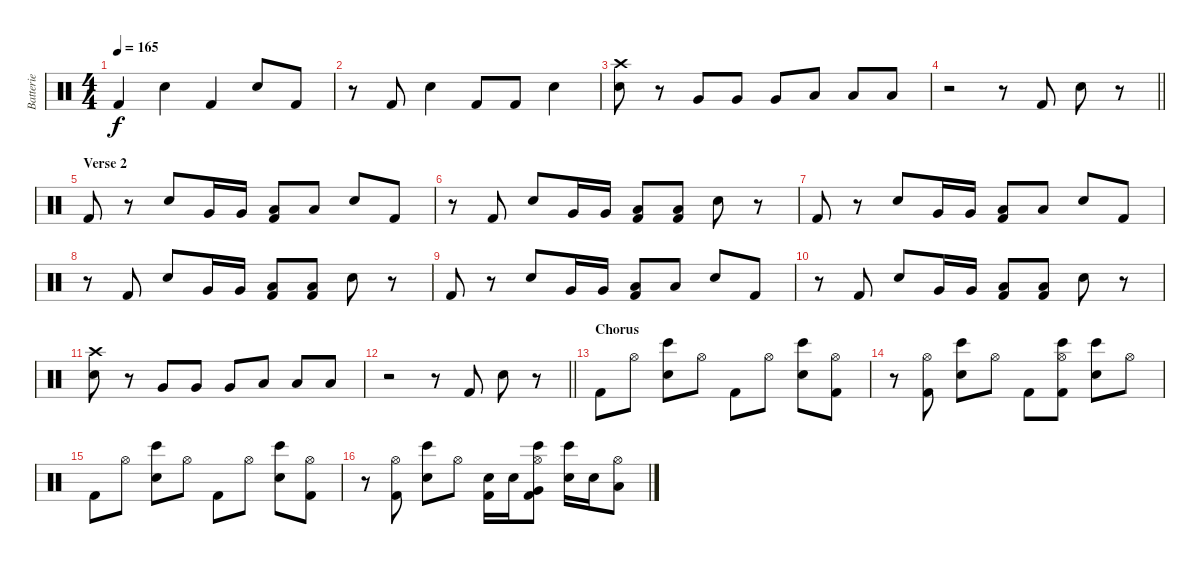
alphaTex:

\track ("Batterie" "Batterie") {instrument percussion}
\staff {score}
\articulation defaults
\ts (4 4)
\tempo 165
\clef neutral
\ks c "Kick (hit) 2".4{dy f} "Electric Snare (hit)".4 "Kick (hit) 2".4 "Electric Snare (hit)".8 "Kick (hit) 2".8
|
r.8 "Kick (hit) 2".8 "Electric Snare (hit)".4 "Kick (hit) 2".8 "Kick (hit) 2".8 "Electric Snare (hit)".4 |
("Crash high (hit)" "Electric Snare (hit)").8 r.8 "Very Low Tom (hit)".8 "Very Low Tom (hit)".8 "Very Low Tom (hit)".8 "Low Floor Tom (hit)".8 "Low Floor Tom (hit)".8 "Low Floor Tom (hit)".8 |
\barLineRight lightlight
r.2 r.8 "Kick (hit) 2".8 "Electric Snare (hit)".8 r.8 |
\section ("" "Verse 2")
"Kick (hit) 2".8 r.8 "Electric Snare (hit)".8 "Very Low Tom (hit)".16 "Very Low Tom (hit)".16 ("Kick (hit) 2" "Low Floor Tom (hit)").8 "Low Floor Tom (hit)".8 "Electric Snare (hit)".8 "Kick (hit) 2".8 |
r.8 "Kick (hit) 2".8 "Electric Snare (hit)".8 "Very Low Tom (hit)".16 "Very Low Tom (hit)".16 ("Kick (hit) 2" "Low Floor Tom (hit)").8 ("Kick (hit) 2" "Low Floor Tom (hit)").8 "Electric Snare (hit)".8 r.8 |
"Kick (hit) 2".8 r.8 "Electric Snare (hit)".8 "Very Low Tom (hit)".16 "Very Low Tom (hit)".16 ("Kick (hit) 2" "Low Floor Tom (hit)").8 "Low Floor Tom (hit)".8 "Electric Snare (hit)".8 "Kick (hit) 2".8 |
r.8 "Kick (hit) 2".8 "Electric Snare (hit)".8 "Very Low Tom (hit)".16 "Very Low Tom (hit)".16 ("Kick (hit) 2" "Low Floor Tom (hit)").8 ("Kick (hit) 2" "Low Floor Tom (hit)").8 "Electric Snare (hit)".8 r.8 |
"Kick (hit) 2".8 r.8 "Electric Snare (hit)".8 "Very Low Tom (hit)".16 "Very Low Tom (hit)".16 ("Kick (hit) 2" "Low Floor Tom (hit)").8 "Low Floor Tom (hit)".8 "Electric Snare (hit)".8 "Kick (hit) 2".8 |
r.8 "Kick (hit) 2".8 "Electric Snare (hit)".8 "Very Low Tom (hit)".16 "Very Low Tom (hit)".16 ("Kick (hit) 2" "Low Floor Tom (hit)").8 ("Kick (hit) 2" "Low Floor Tom (hit)").8 "Electric Snare (hit)".8 r.8 |
("Crash high (hit)" "Electric Snare (hit)").8 r.8 "Very Low Tom (hit)".8 "Very Low Tom (hit)".8 "Very Low Tom (hit)".8 "Low Floor Tom (hit)".8 "Low Floor Tom (hit)".8 "Low Floor Tom (hit)".8 |
\barLineRight lightlight
r.2 r.8 "Kick (hit) 2".8 "Electric Snare (hit)".8 r.8 |
\section ("" "Chorus")
"Kick (hit) 2".8 "Hi-Hat (open)".8 ("Electric Snare (hit)" "Bongo High (hit)").8 "Hi-Hat (open)".8 "Kick (hit) 2".8 "Hi-Hat (open)".8 ("Electric Snare (hit)" "Bongo High (hit)").8 ("Hi-Hat (open)" "Kick (hit) 2").8 |
r.8 ("Hi-Hat (open)" "Kick (hit) 2").8 ("Electric Snare (hit)" "Bongo High (hit)").8 "Hi-Hat (open)".8 "Kick (hit) 2".8 ("Hi-Hat (open)" "Kick (hit) 2" "Bongo High (hit)").8 ("Electric Snare (hit)" "Bongo High (hit)").8 "Hi-Hat (open)".8 |
"Kick (hit) 2".8 "Hi-Hat (open)".8 ("Electric Snare (hit)" "Bongo High (hit)").8 "Hi-Hat (open)".8 "Kick (hit) 2".8 "Hi-Hat (open)".8 ("Electric Snare (hit)" "Bongo High (hit)").8 ("Hi-Hat (open)" "Kick (hit) 2").8 |
r.8 ("Hi-Hat (open)" "Kick (hit) 2").8 ("Electric Snare (hit)" "Bongo High (hit)").8 "Hi-Hat (open)".8 ("Kick (hit) 2" "Electric Snare (hit)").16 "Electric Snare (hit)".16 ("Hi-Hat (open)" "Kick (hit) 2" "Very Low Tom (hit)" "Bongo High (hit)").8 ("Electric Snare (hit)" "Bongo High (hit)").16 "Electric Snare (hit)".16 ("Hi-Hat (open)" "Low Floor Tom (hit)").8
